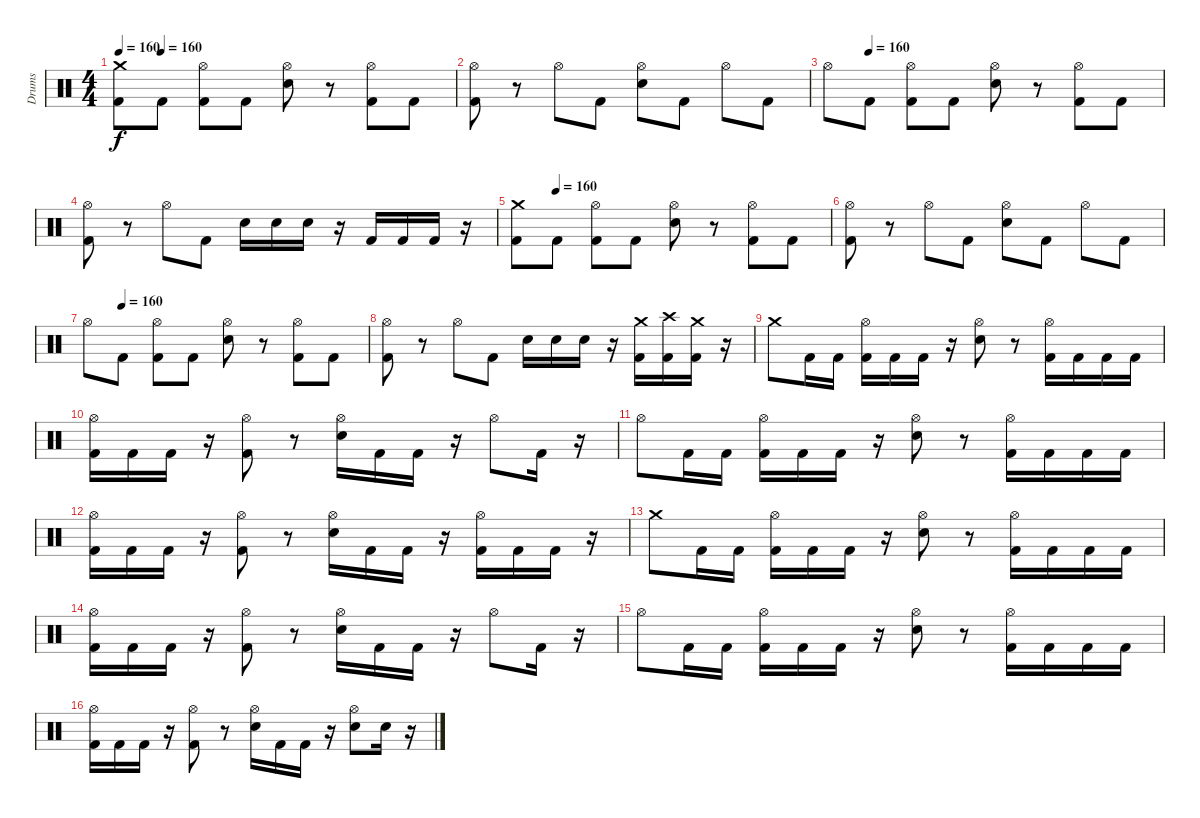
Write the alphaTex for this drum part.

\track ("Drums" "Drums") {instrument percussion}
\staff {score}
\articulation defaults
\ts (4 4)
\tempo 160
\tempo (160 0.125)
\clef neutral
\ks c
("Kick (hit) 2" "Crash medium (hit)").8{dy f} "Kick (hit) 2".8 ("Kick (hit) 2" "Hi-Hat (open)").8 "Kick (hit) 2".8 ("Electric Snare (hit)" "Hi-Hat (open)").8 r.8 ("Kick (hit) 2" "Hi-Hat (open)").8 "Kick (hit) 2".8 |
("Kick (hit) 2" "Hi-Hat (open)").8 r.8 "Hi-Hat (open)".8 "Kick (hit) 2".8 ("Electric Snare (hit)" "Hi-Hat (open)").8 "Kick (hit) 2".8 "Hi-Hat (open)".8 "Kick (hit) 2".8 |
\tempo (160 0.125)
"Hi-Hat (open)".8 "Kick (hit) 2".8 ("Kick (hit) 2" "Hi-Hat (open)").8 "Kick (hit) 2".8 ("Electric Snare (hit)" "Hi-Hat (open)").8 r.8 ("Kick (hit) 2" "Hi-Hat (open)").8 "Kick (hit) 2".8 |
("Kick (hit) 2" "Hi-Hat (open)").8 r.8 "Hi-Hat (open)".8 "Kick (hit) 2".8 "Electric Snare (hit)".16 "Electric Snare (hit)".16 "Electric Snare (hit)".16 r.16 "Kick (hit) 2".16 "Kick (hit) 2".16 "Kick (hit) 2".16 r.16 |
\tempo (160 0.125)
("Kick (hit) 2" "Crash medium (hit)").8 "Kick (hit) 2".8 ("Kick (hit) 2" "Hi-Hat (open)").8 "Kick (hit) 2".8 ("Electric Snare (hit)" "Hi-Hat (open)").8 r.8 ("Kick (hit) 2" "Hi-Hat (open)").8 "Kick (hit) 2".8 |
("Kick (hit) 2" "Hi-Hat (open)").8 r.8 "Hi-Hat (open)".8 "Kick (hit) 2".8 ("Electric Snare (hit)" "Hi-Hat (open)").8 "Kick (hit) 2".8 "Hi-Hat (open)".8 "Kick (hit) 2".8 |
\tempo (160 0.125)
"Hi-Hat (open)".8 "Kick (hit) 2".8 ("Kick (hit) 2" "Hi-Hat (open)").8 "Kick (hit) 2".8 ("Electric Snare (hit)" "Hi-Hat (open)").8 r.8 ("Kick (hit) 2" "Hi-Hat (open)").8 "Kick (hit) 2".8 |
("Kick (hit) 2" "Hi-Hat (open)").8 r.8 "Hi-Hat (open)".8 "Kick (hit) 2".8 "Electric Snare (hit)".16 "Electric Snare (hit)".16 "Electric Snare (hit)".16 r.16 ("Crash medium (hit)" "Kick (hit) 2").16 ("Crash high (hit)" "Kick (hit) 2").16 ("Crash medium (hit)" "Kick (hit) 2").16 r.16 |
"Crash medium (hit)".8 "Kick (hit) 2".16 "Kick (hit) 2".16 ("Kick (hit) 2" "Hi-Hat (open)").16 "Kick (hit) 2".16 "Kick (hit) 2".16 r.16 ("Electric Snare (hit)" "Hi-Hat (open)").8 r.8 ("Kick (hit) 2" "Hi-Hat (open)").16 "Kick (hit) 2".16 "Kick (hit) 2".16 "Kick (hit) 2".16 |
("Kick (hit) 2" "Hi-Hat (open)").16 "Kick (hit) 2".16 "Kick (hit) 2".16 r.16 ("Kick (hit) 2" "Hi-Hat (open)").8 r.8 ("Electric Snare (hit)" "Hi-Hat (open)").16 "Kick (hit) 2".16 "Kick (hit) 2".16 r.16 "Hi-Hat (open)".8 "Kick (hit) 2".16 r.16 |
"Hi-Hat (open)".8 "Kick (hit) 2".16 "Kick (hit) 2".16 ("Kick (hit) 2" "Hi-Hat (open)").16 "Kick (hit) 2".16 "Kick (hit) 2".16 r.16 ("Electric Snare (hit)" "Hi-Hat (open)").8 r.8 ("Kick (hit) 2" "Hi-Hat (open)").16 "Kick (hit) 2".16 "Kick (hit) 2".16 "Kick (hit) 2".16 |
("Kick (hit) 2" "Hi-Hat (open)").16 "Kick (hit) 2".16 "Kick (hit) 2".16 r.16 ("Kick (hit) 2" "Hi-Hat (open)").8 r.8 ("Electric Snare (hit)" "Hi-Hat (open)").16 "Kick (hit) 2".16 "Kick (hit) 2".16 r.16 ("Kick (hit) 2" "Hi-Hat (open)").16 "Kick (hit) 2".16 "Kick (hit) 2".16 r.16 |
"Crash medium (hit)".8 "Kick (hit) 2".16 "Kick (hit) 2".16 ("Kick (hit) 2" "Hi-Hat (open)").16 "Kick (hit) 2".16 "Kick (hit) 2".16 r.16 ("Electric Snare (hit)" "Hi-Hat (open)").8 r.8 ("Kick (hit) 2" "Hi-Hat (open)").16 "Kick (hit) 2".16 "Kick (hit) 2".16 "Kick (hit) 2".16 |
("Kick (hit) 2" "Hi-Hat (open)").16 "Kick (hit) 2".16 "Kick (hit) 2".16 r.16 ("Kick (hit) 2" "Hi-Hat (open)").8 r.8 ("Electric Snare (hit)" "Hi-Hat (open)").16 "Kick (hit) 2".16 "Kick (hit) 2".16 r.16 "Hi-Hat (open)".8 "Kick (hit) 2".16 r.16 |
"Hi-Hat (open)".8 "Kick (hit) 2".16 "Kick (hit) 2".16 ("Kick (hit) 2" "Hi-Hat (open)").16 "Kick (hit) 2".16 "Kick (hit) 2".16 r.16 ("Electric Snare (hit)" "Hi-Hat (open)").8 r.8 ("Kick (hit) 2" "Hi-Hat (open)").16 "Kick (hit) 2".16 "Kick (hit) 2".16 "Kick (hit) 2".16 |
("Kick (hit) 2" "Hi-Hat (open)").16 "Kick (hit) 2".16 "Kick (hit) 2".16 r.16 ("Kick (hit) 2" "Hi-Hat (open)").8 r.8 ("Electric Snare (hit)" "Hi-Hat (open)").16 "Kick (hit) 2".16 "Kick (hit) 2".16 r.16 ("Electric Snare (hit)" "Hi-Hat (open)").8 "Electric Snare (hit)".16 r.16
